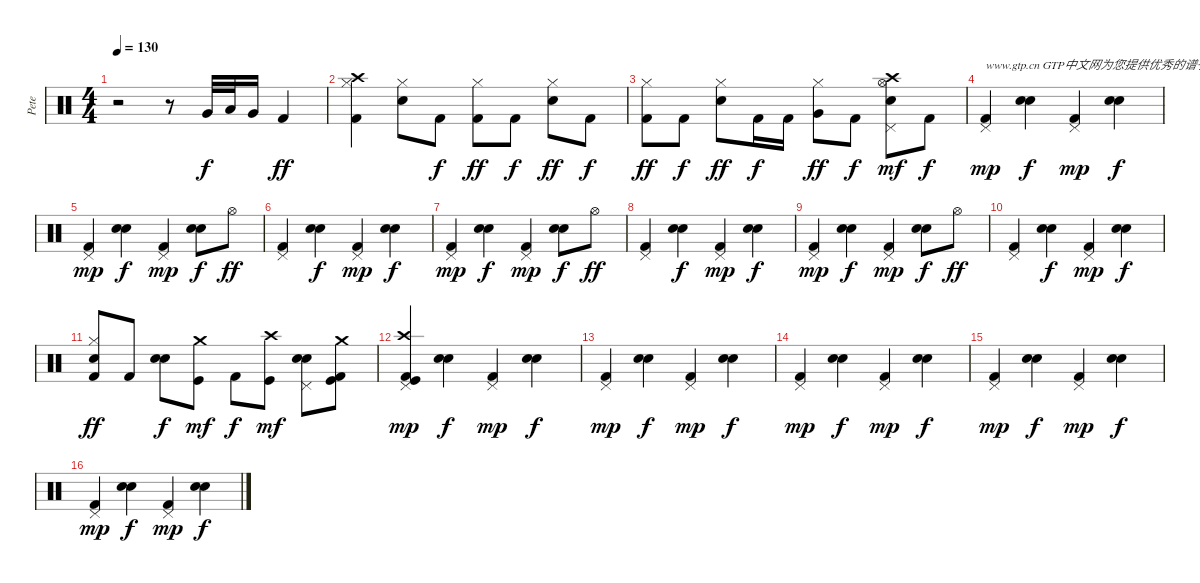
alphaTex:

\track ("Pete" "Pete") {instrument percussion}
\staff {score}
\articulation defaults
\ts (4 4)
\tempo 130
\clef neutral
\ks c
r.2{dy f} r.8 "Very Low Tom (hit)".32 "Low Floor Tom (hit)".32 "Very Low Tom (hit)".16 "Kick (hit) 2".4{dy ff} |
("Hi-Hat (closed)" "Kick (hit) 2" "Crash high (hit)").4 ("Hi-Hat (closed)" "Snare (hit) 2").8 "Kick (hit) 2".8{dy f} ("Hi-Hat (closed)" "Kick (hit) 2").8{dy ff} "Kick (hit) 2".8{dy f} ("Hi-Hat (closed)" "Snare (hit) 2").8{dy ff} "Kick (hit) 2".8{dy f} |
("Hi-Hat (closed)" "Kick (hit) 2").8{dy ff} "Kick (hit) 2".8{dy f} ("Hi-Hat (closed)" "Snare (hit) 2").8{dy ff} "Kick (hit) 2".16{dy f} "Kick (hit) 2".16 ("Very Low Tom (hit)" "Hi-Hat (closed)").8{dy ff} "Kick (hit) 2".8{dy f} ("Crash high (hit)" "Pedal Hi-Hat (hit)" "Snare (hit) 2" "Hi-Hat (open)").8{dy mf} "Kick (hit) 2".8{dy f} |
("Pedal Hi-Hat (hit)" "Kick (hit) 2").4{txt "www.gtp.cn GTP中文网为您提供优秀的谱子" dy mp} ("Snare (hit) 2" "Electric Snare (hit)").4{dy f} ("Pedal Hi-Hat (hit)" "Kick (hit) 2").4{dy mp} ("Snare (hit) 2" "Electric Snare (hit)").4{dy f} |
("Pedal Hi-Hat (hit)" "Kick (hit) 2").4{dy mp} ("Snare (hit) 2" "Electric Snare (hit)").4{dy f} ("Pedal Hi-Hat (hit)" "Kick (hit) 2").4{dy mp} ("Snare (hit) 2" "Electric Snare (hit)").8{dy f} "Hi-Hat (open)".8{dy ff} |
("Pedal Hi-Hat (hit)" "Kick (hit) 2").4 ("Snare (hit) 2" "Electric Snare (hit)").4{dy f} ("Kick (hit) 2" "Pedal Hi-Hat (hit)").4{dy mp} ("Snare (hit) 2" "Electric Snare (hit)").4{dy f} |
("Pedal Hi-Hat (hit)" "Kick (hit) 2").4{dy mp} ("Snare (hit) 2" "Electric Snare (hit)").4{dy f} ("Pedal Hi-Hat (hit)" "Kick (hit) 2").4{dy mp} ("Snare (hit) 2" "Electric Snare (hit)").8{dy f} "Hi-Hat (open)".8{dy ff} |
("Pedal Hi-Hat (hit)" "Kick (hit) 2").4 ("Snare (hit) 2" "Electric Snare (hit)").4{dy f} ("Kick (hit) 2" "Pedal Hi-Hat (hit)").4{dy mp} ("Snare (hit) 2" "Electric Snare (hit)").4{dy f} |
("Pedal Hi-Hat (hit)" "Kick (hit) 2").4{dy mp} ("Snare (hit) 2" "Electric Snare (hit)").4{dy f} ("Pedal Hi-Hat (hit)" "Kick (hit) 2").4{dy mp} ("Snare (hit) 2" "Electric Snare (hit)").8{dy f} "Hi-Hat (open)".8{dy ff} |
("Pedal Hi-Hat (hit)" "Kick (hit) 2").4 ("Snare (hit) 2" "Electric Snare (hit)").4{dy f} ("Pedal Hi-Hat (hit)" "Kick (hit) 2").4{dy mp} ("Snare (hit) 2" "Electric Snare (hit)").4{dy f} |
("Snare (hit) 2" "Kick (hit) 2" "Hi-Hat (closed)").8{dy ff} "Kick (hit) 2".8 ("Snare (hit) 2" "Electric Snare (hit)").8{dy f} ("Kick (hit)" "Crash medium (hit)").8{dy mf} "Kick (hit) 2".8{dy f} ("Kick (hit)" "Crash high (hit)").8{dy mf} ("Pedal Hi-Hat (hit)" "Snare (hit) 2" "Electric Snare (hit)").8 ("Kick (hit)" "Crash medium (hit)" "Kick (hit) 2").8 |
("Pedal Hi-Hat (hit)" "Kick (hit)" "Crash high (hit)" "Kick (hit) 2").4{dy mp} ("Snare (hit) 2" "Electric Snare (hit)").4{dy f} ("Pedal Hi-Hat (hit)" "Kick (hit) 2").4{dy mp} ("Snare (hit) 2" "Electric Snare (hit)").4{dy f} |
("Pedal Hi-Hat (hit)" "Kick (hit) 2").4{dy mp} ("Snare (hit) 2" "Electric Snare (hit)").4{dy f} ("Pedal Hi-Hat (hit)" "Kick (hit) 2").4{dy mp} ("Snare (hit) 2" "Electric Snare (hit)").4{dy f} |
("Pedal Hi-Hat (hit)" "Kick (hit) 2").4{dy mp} ("Snare (hit) 2" "Electric Snare (hit)").4{dy f} ("Pedal Hi-Hat (hit)" "Kick (hit) 2").4{dy mp} ("Snare (hit) 2" "Electric Snare (hit)").4{dy f} |
("Pedal Hi-Hat (hit)" "Kick (hit) 2").4{dy mp} ("Snare (hit) 2" "Electric Snare (hit)").4{dy f} ("Pedal Hi-Hat (hit)" "Kick (hit) 2").4{dy mp} ("Snare (hit) 2" "Electric Snare (hit)").4{dy f} |
("Pedal Hi-Hat (hit)" "Kick (hit) 2").4{dy mp} ("Snare (hit) 2" "Electric Snare (hit)").4{dy f} ("Pedal Hi-Hat (hit)" "Kick (hit) 2").4{dy mp} ("Snare (hit) 2" "Electric Snare (hit)").4{dy f}
